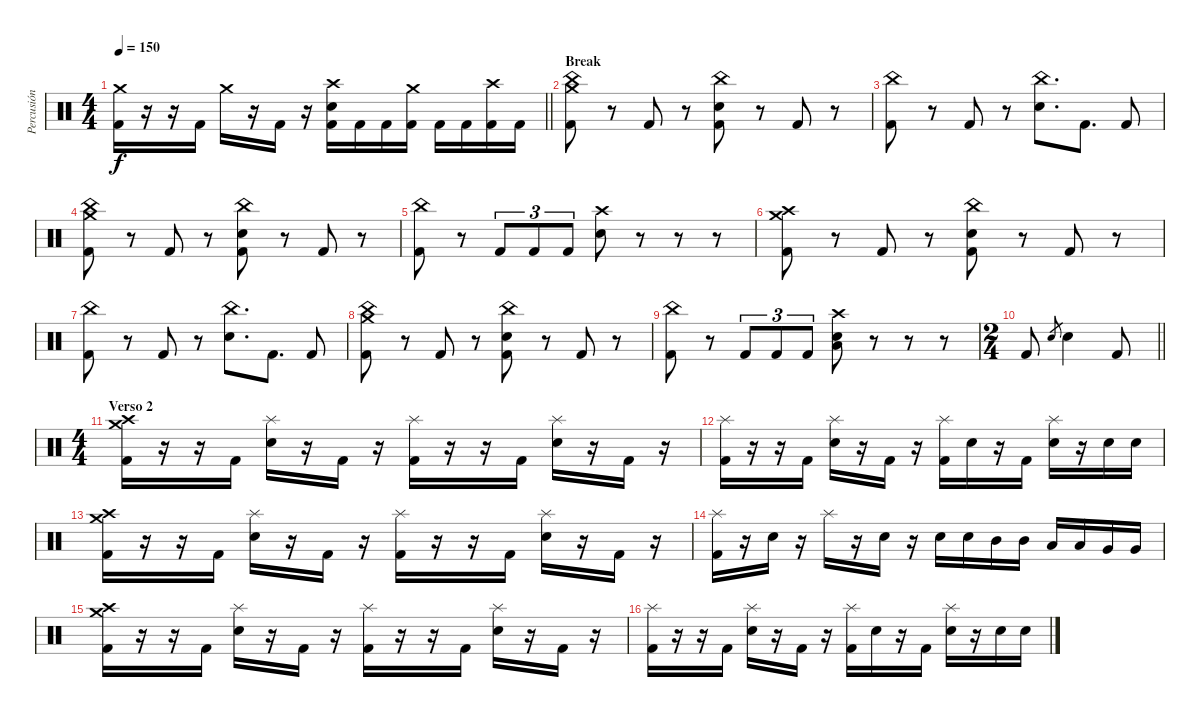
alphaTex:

\track ("Percusión" "Percusión") {instrument percussion}
\staff {score}
\articulation defaults
\ts (4 4)
\tempo 150
\clef neutral
\barLineRight lightlight
\ks c
("Crash medium (hit)" "Kick (hit) 2").16{dy f} r.16 r.16 "Kick (hit) 2".16 "Crash medium (hit)".16 r.16 "Kick (hit) 2".16 r.16 ("Crash high (hit)" "Electric Snare (hit)" "Kick (hit) 2").16 "Kick (hit) 2".16 "Kick (hit) 2".16 ("Crash medium (hit)" "Kick (hit) 2").16 "Kick (hit) 2".16 "Kick (hit) 2".16 ("Crash high (hit)" "Kick (hit) 2").16 "Kick (hit) 2".16 |
\section ("" "Break")
("Crash medium (hit)" "China (hit)" "Kick (hit) 2").8 r.8 "Kick (hit) 2".8 r.8 ("China (hit)" "Electric Snare (hit)" "Kick (hit) 2").8 r.8 "Kick (hit) 2".8 r.8 |
("China (hit)" "Kick (hit) 2").8 r.8 "Kick (hit) 2".8 r.8 ("China (hit)" "Electric Snare (hit)").8{d} "Kick (hit) 2".8{d} "Kick (hit) 2".8 |
("China (hit)" "Crash medium (hit)" "Kick (hit) 2").8 r.8 "Kick (hit) 2".8 r.8 ("China (hit)" "Electric Snare (hit)" "Kick (hit) 2").8 r.8 "Kick (hit) 2".8 r.8 |
("China (hit)" "Kick (hit) 2").8 r.8 "Kick (hit) 2".8{tu (3 2)} "Kick (hit) 2".8{tu (3 2)} "Kick (hit) 2".8{tu (3 2)} ("Crash high (hit)" "Electric Snare (hit)").8 r.8 r.8 r.8 |
("Crash medium (hit)" "Crash high (hit)" "Kick (hit) 2").8 r.8 "Kick (hit) 2".8 r.8 ("China (hit)" "Electric Snare (hit)" "Kick (hit) 2").8 r.8 "Kick (hit) 2".8 r.8 |
("China (hit)" "Kick (hit) 2").8 r.8 "Kick (hit) 2".8 r.8 ("China (hit)" "Electric Snare (hit)").8{d} "Kick (hit) 2".8{d} "Kick (hit) 2".8 |
("China (hit)" "Crash medium (hit)" "Kick (hit) 2").8 r.8 "Kick (hit) 2".8 r.8 ("China (hit)" "Electric Snare (hit)" "Kick (hit) 2").8 r.8 "Kick (hit) 2".8 r.8 |
("China (hit)" "Kick (hit) 2").8 r.8 "Kick (hit) 2".8{tu (3 2)} "Kick (hit) 2".8{tu (3 2)} "Kick (hit) 2".8{tu (3 2)} ("Crash high (hit)" "Low Floor Tom (hit)" "Electric Snare (hit)").8 r.8 r.8 r.8 |
\ts (2 4)
\barLineRight lightlight "Kick (hit) 2".8 "Electric Snare (hit)".8{gr} "Electric Snare (hit)".4 "Kick (hit) 2".8
|
\ts (4 4)
\section ("" "Verso 2")
("Crash medium (hit)" "Crash high (hit)" "Kick (hit) 2").16 r.16 r.16 "Kick (hit) 2".16 ("Splash (hit)" "Electric Snare (hit)").16 r.16 "Kick (hit) 2".16 r.16 ("Splash (hit)" "Kick (hit) 2").16 r.16 r.16 "Kick (hit) 2".16 ("Splash (hit)" "Electric Snare (hit)").16 r.16 "Kick (hit) 2".16 r.16 |
("Splash (hit)" "Kick (hit) 2").16 r.16 r.16 "Kick (hit) 2".16 ("Splash (hit)" "Electric Snare (hit)").16 r.16 "Kick (hit) 2".16 r.16 ("Splash (hit)" "Kick (hit) 2").16 "Electric Snare (hit)".16 r.16 "Kick (hit) 2".16 ("Splash (hit)" "Electric Snare (hit)").16 r.16 "Electric Snare (hit)".16 "Electric Snare (hit)".16 |
("Crash medium (hit)" "Crash high (hit)" "Kick (hit) 2").16 r.16 r.16 "Kick (hit) 2".16 ("Splash (hit)" "Electric Snare (hit)").16 r.16 "Kick (hit) 2".16 r.16 ("Splash (hit)" "Kick (hit) 2").16 r.16 r.16 "Kick (hit) 2".16 ("Splash (hit)" "Electric Snare (hit)").16 r.16 "Kick (hit) 2".16 r.16 |
("Splash (hit)" "Kick (hit) 2").16 r.16 "Electric Snare (hit)".16 r.16 "Splash (hit)".16 r.16 "Electric Snare (hit)".16 r.16 "Electric Snare (hit)".16 "Electric Snare (hit)".16 "Mid Tom (hit)".16 "Mid Tom (hit)".16 "Low Tom (hit)".16 "Low Tom (hit)".16 "Very Low Tom (hit)".16 "Very Low Tom (hit)".16 |
("Crash medium (hit)" "Crash high (hit)" "Kick (hit) 2").16 r.16 r.16 "Kick (hit) 2".16 ("Splash (hit)" "Electric Snare (hit)").16 r.16 "Kick (hit) 2".16 r.16 ("Splash (hit)" "Kick (hit) 2").16 r.16 r.16 "Kick (hit) 2".16 ("Splash (hit)" "Electric Snare (hit)").16 r.16 "Kick (hit) 2".16 r.16 |
("Splash (hit)" "Kick (hit) 2").16 r.16 r.16 "Kick (hit) 2".16 ("Splash (hit)" "Electric Snare (hit)").16 r.16 "Kick (hit) 2".16 r.16 ("Splash (hit)" "Kick (hit) 2").16 "Electric Snare (hit)".16 r.16 "Kick (hit) 2".16 ("Splash (hit)" "Electric Snare (hit)").16 r.16 "Electric Snare (hit)".16 "Electric Snare (hit)".16
